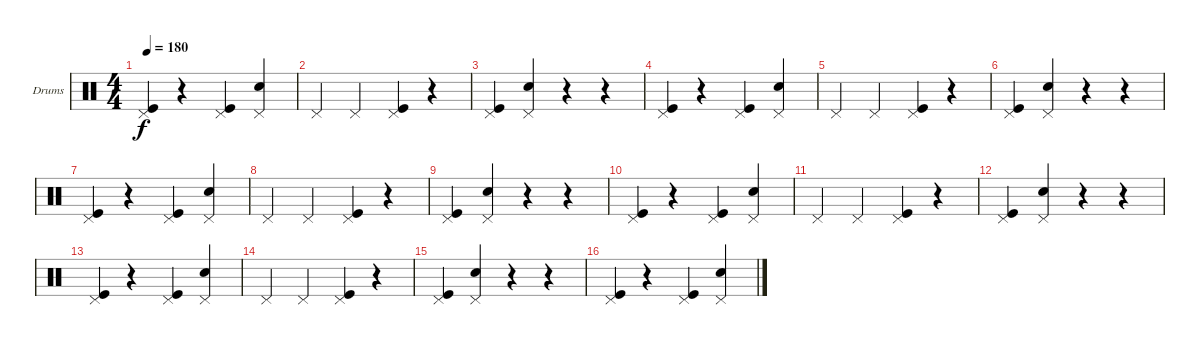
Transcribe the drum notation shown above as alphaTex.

\defaultSystemsLayout 4
\bracketExtendMode groupsimilarinstruments
\firstSystemTrackNameOrientation horizontal
\otherSystemsTrackNameOrientation horizontal
\track ("Георгий Гурьянов" "Drums") {instrument percussion}
\staff {score}
\articulation defaults
\ts (4 4)
\tempo 180
\clef neutral
\ks c
("Pedal Hi-Hat (hit)" "Kick (hit)").4{dy f} r.4 ("Pedal Hi-Hat (hit)" "Kick (hit)").4 ("Pedal Hi-Hat (hit)" "Snare (hit) 2").4 |
"Pedal Hi-Hat (hit)".4 "Pedal Hi-Hat (hit)".4 ("Pedal Hi-Hat (hit)" "Kick (hit)").4 r.4 |
("Pedal Hi-Hat (hit)" "Kick (hit)").4 ("Pedal Hi-Hat (hit)" "Snare (hit) 2").4 r.4 r.4 |
("Pedal Hi-Hat (hit)" "Kick (hit)").4 r.4 ("Pedal Hi-Hat (hit)" "Kick (hit)").4 ("Pedal Hi-Hat (hit)" "Snare (hit) 2").4 |
"Pedal Hi-Hat (hit)".4 "Pedal Hi-Hat (hit)".4 ("Pedal Hi-Hat (hit)" "Kick (hit)").4 r.4 |
("Pedal Hi-Hat (hit)" "Kick (hit)").4 ("Pedal Hi-Hat (hit)" "Snare (hit) 2").4 r.4 r.4 |
("Pedal Hi-Hat (hit)" "Kick (hit)").4 r.4 ("Pedal Hi-Hat (hit)" "Kick (hit)").4 ("Pedal Hi-Hat (hit)" "Snare (hit) 2").4 |
"Pedal Hi-Hat (hit)".4 "Pedal Hi-Hat (hit)".4 ("Pedal Hi-Hat (hit)" "Kick (hit)").4 r.4 |
("Pedal Hi-Hat (hit)" "Kick (hit)").4 ("Pedal Hi-Hat (hit)" "Snare (hit) 2").4 r.4 r.4 |
("Pedal Hi-Hat (hit)" "Kick (hit)").4 r.4 ("Pedal Hi-Hat (hit)" "Kick (hit)").4 ("Pedal Hi-Hat (hit)" "Snare (hit) 2").4 |
"Pedal Hi-Hat (hit)".4 "Pedal Hi-Hat (hit)".4 ("Pedal Hi-Hat (hit)" "Kick (hit)").4 r.4 |
("Pedal Hi-Hat (hit)" "Kick (hit)").4 ("Pedal Hi-Hat (hit)" "Snare (hit) 2").4 r.4 r.4 |
("Pedal Hi-Hat (hit)" "Kick (hit)").4 r.4 ("Pedal Hi-Hat (hit)" "Kick (hit)").4 ("Pedal Hi-Hat (hit)" "Snare (hit) 2").4 |
"Pedal Hi-Hat (hit)".4 "Pedal Hi-Hat (hit)".4 ("Pedal Hi-Hat (hit)" "Kick (hit)").4 r.4 |
("Pedal Hi-Hat (hit)" "Kick (hit)").4 ("Pedal Hi-Hat (hit)" "Snare (hit) 2").4 r.4 r.4 |
("Pedal Hi-Hat (hit)" "Kick (hit)").4 r.4 ("Pedal Hi-Hat (hit)" "Kick (hit)").4 ("Pedal Hi-Hat (hit)" "Snare (hit) 2").4
